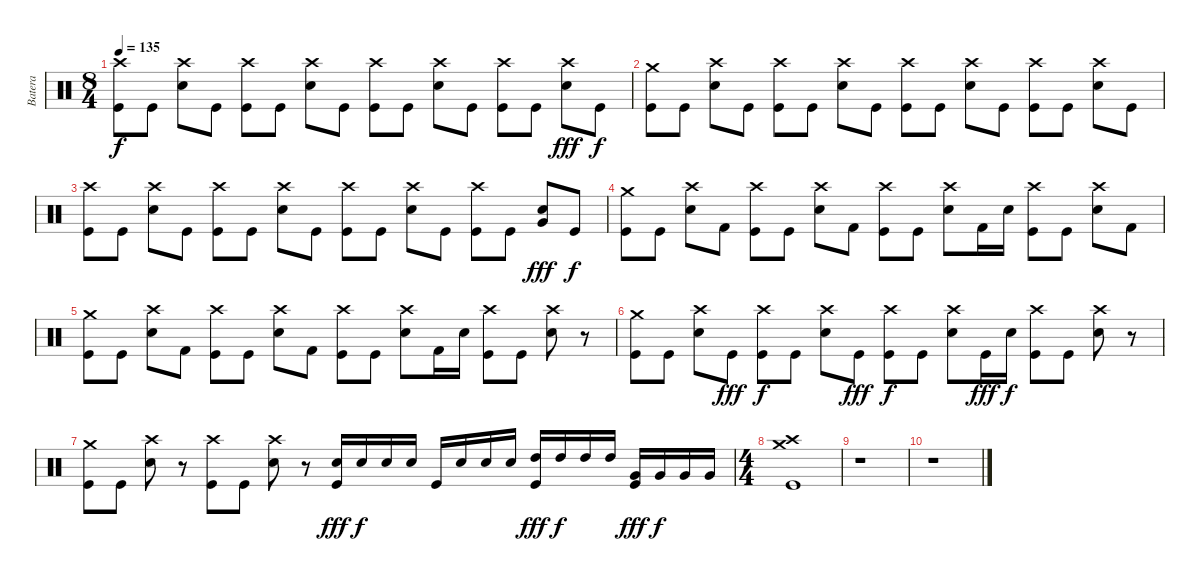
\track ("Batera" "Batera") {instrument percussion}
\staff {score}
\articulation defaults
\ts (8 4)
\tempo 135
\clef neutral
\ks c
("Kick (hit)" "Crash high (hit)").8{dy f} "Kick (hit)".8 ("Snare (hit) 2" "Crash high (hit)").8 "Kick (hit)".8 ("Kick (hit)" "Crash high (hit)").8 "Kick (hit)".8 ("Snare (hit) 2" "Crash high (hit)").8 "Kick (hit)".8 ("Kick (hit)" "Crash high (hit)").8 "Kick (hit)".8 ("Snare (hit) 2" "Crash high (hit)").8 "Kick (hit)".8 ("Kick (hit)" "Crash high (hit)").8 "Kick (hit)".8 ("Snare (hit) 2" "Crash high (hit)").8{dy fff} "Kick (hit)".8{dy f} |
("Kick (hit)" "Crash medium (hit)").8 "Kick (hit)".8 ("Snare (hit) 2" "Crash high (hit)").8 "Kick (hit)".8 ("Kick (hit)" "Crash high (hit)").8 "Kick (hit)".8 ("Snare (hit) 2" "Crash high (hit)").8 "Kick (hit)".8 ("Kick (hit)" "Crash high (hit)").8 "Kick (hit)".8 ("Snare (hit) 2" "Crash high (hit)").8 "Kick (hit)".8 ("Kick (hit)" "Crash high (hit)").8 "Kick (hit)".8 ("Snare (hit) 2" "Crash high (hit)").8 "Kick (hit)".8 |
("Kick (hit)" "Crash high (hit)").8 "Kick (hit)".8 ("Snare (hit) 2" "Crash high (hit)").8 "Kick (hit)".8 ("Kick (hit)" "Crash high (hit)").8 "Kick (hit)".8 ("Snare (hit) 2" "Crash high (hit)").8 "Kick (hit)".8 ("Kick (hit)" "Crash high (hit)").8 "Kick (hit)".8 ("Snare (hit) 2" "Crash high (hit)").8 "Kick (hit)".8 ("Kick (hit)" "Crash high (hit)").8 "Kick (hit)".8 ("Snare (hit) 2" "Very Low Tom (hit)").8{dy fff} "Kick (hit)".8{dy f} |
("Kick (hit)" "Crash medium (hit)").8 "Kick (hit)".8 ("Snare (hit) 2" "Crash high (hit)").8 "Kick (hit) 2".8 ("Kick (hit)" "Crash high (hit)").8 "Kick (hit)".8 ("Snare (hit) 2" "Crash high (hit)").8 "Kick (hit) 2".8 ("Kick (hit)" "Crash high (hit)").8 "Kick (hit)".8 ("Snare (hit) 2" "Crash high (hit)").8 "Kick (hit) 2".16 "Snare (hit) 2".16 ("Kick (hit)" "Crash high (hit)").8 "Kick (hit)".8 ("Snare (hit) 2" "Crash high (hit)").8 "Kick (hit) 2".8 |
("Kick (hit)" "Crash medium (hit)").8 "Kick (hit)".8 ("Snare (hit) 2" "Crash high (hit)").8 "Kick (hit) 2".8 ("Kick (hit)" "Crash high (hit)").8 "Kick (hit)".8 ("Snare (hit) 2" "Crash high (hit)").8 "Kick (hit) 2".8 ("Kick (hit)" "Crash high (hit)").8 "Kick (hit)".8 ("Snare (hit) 2" "Crash high (hit)").8 "Kick (hit) 2".16 "Snare (hit) 2".16 ("Kick (hit)" "Crash high (hit)").8 "Kick (hit)".8 ("Snare (hit) 2" "Crash high (hit)").8 r.8 |
("Kick (hit)" "Crash medium (hit)").8 "Kick (hit)".8 ("Snare (hit) 2" "Crash high (hit)").8 "Kick (hit)".8{dy fff} ("Kick (hit)" "Crash high (hit)").8{dy f} "Kick (hit)".8 ("Snare (hit) 2" "Crash high (hit)").8 "Kick (hit)".8{dy fff} ("Kick (hit)" "Crash high (hit)").8{dy f} "Kick (hit)".8 ("Snare (hit) 2" "Crash high (hit)").8 "Kick (hit)".16{dy fff} "Snare (hit) 2".16{dy f} ("Kick (hit)" "Crash high (hit)").8 "Kick (hit)".8 ("Snare (hit) 2" "Crash high (hit)").8 r.8 |
("Kick (hit)" "Crash medium (hit)").8 "Kick (hit)".8 ("Snare (hit) 2" "Crash high (hit)").8 r.8 ("Kick (hit)" "Crash high (hit)").8 "Kick (hit)".8 ("Snare (hit) 2" "Crash high (hit)").8 r.8 ("Snare (hit) 2" "Kick (hit)").16{dy fff} "Snare (hit) 2".16{dy f} "Snare (hit) 2".16 "Snare (hit) 2".16 "Kick (hit)".16 "Snare (hit) 2".16 "Snare (hit) 2".16 "Snare (hit) 2".16 ("High Tom (hit)" "Kick (hit)").16{dy fff} "High Tom (hit)".16{dy f} "High Tom (hit)".16 "High Tom (hit)".16 ("Very Low Tom (hit)" "Kick (hit)").16{dy fff} "Very Low Tom (hit)".16{dy f} "Very Low Tom (hit)".16 "Very Low Tom (hit)".16 |
\ts (4 4)
("Kick (hit)" "Crash high (hit)" "Crash medium (hit)").1 |
r.1 |
r.1
